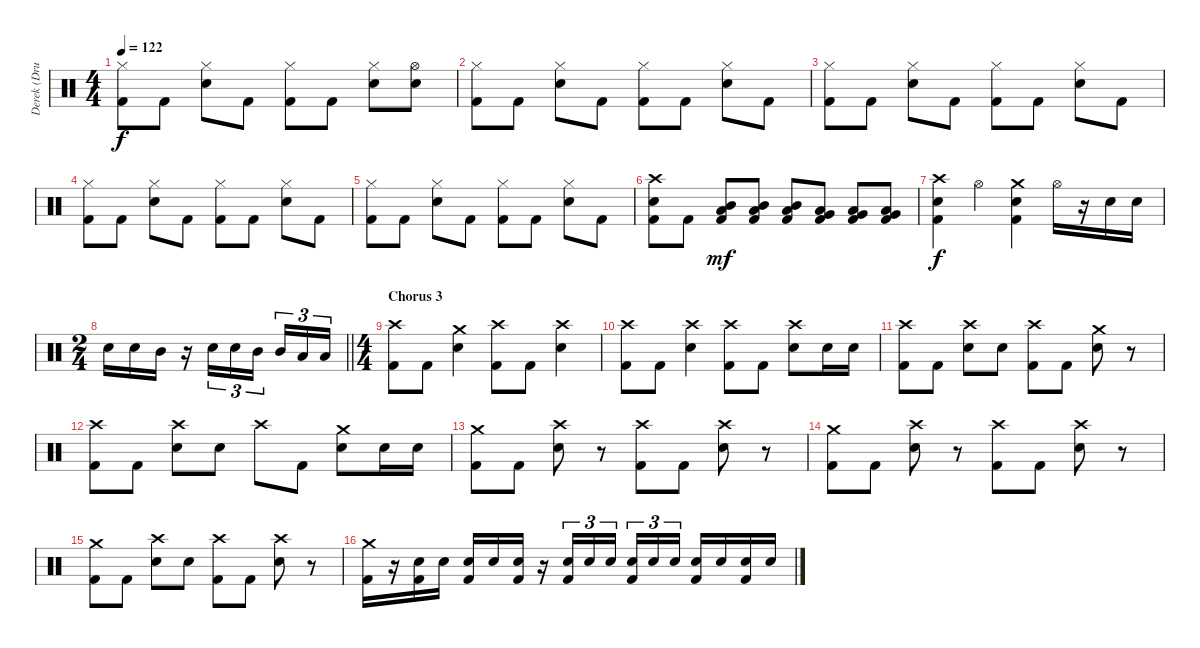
\track ("Derek (Drums)" "Derek (Dru") {instrument percussion}
\staff {score}
\articulation defaults
\ts (4 4)
\tempo 122
\clef neutral
\ks c
("Hi-Hat (closed)" "Kick (hit) 2").8{dy f} "Kick (hit) 2".8 ("Hi-Hat (closed)" "Electric Snare (hit)").8 "Kick (hit) 2".8 ("Hi-Hat (closed)" "Kick (hit) 2").8 "Kick (hit) 2".8 ("Hi-Hat (closed)" "Electric Snare (hit)").8 ("Hi-Hat (open)" "Electric Snare (hit)").8 |
("Hi-Hat (closed)" "Kick (hit) 2").8 "Kick (hit) 2".8 ("Hi-Hat (closed)" "Electric Snare (hit)").8 "Kick (hit) 2".8 ("Hi-Hat (closed)" "Kick (hit) 2").8 "Kick (hit) 2".8 ("Hi-Hat (closed)" "Electric Snare (hit)").8 "Kick (hit) 2".8 |
("Hi-Hat (closed)" "Kick (hit) 2").8 "Kick (hit) 2".8 ("Hi-Hat (closed)" "Electric Snare (hit)").8 "Kick (hit) 2".8 ("Hi-Hat (closed)" "Kick (hit) 2").8 "Kick (hit) 2".8 ("Hi-Hat (closed)" "Electric Snare (hit)").8 "Kick (hit) 2".8 |
("Hi-Hat (closed)" "Kick (hit) 2").8 "Kick (hit) 2".8 ("Hi-Hat (closed)" "Electric Snare (hit)").8 "Kick (hit) 2".8 ("Hi-Hat (closed)" "Kick (hit) 2").8 "Kick (hit) 2".8 ("Hi-Hat (closed)" "Electric Snare (hit)").8 "Kick (hit) 2".8 |
("Hi-Hat (closed)" "Kick (hit) 2").8 "Kick (hit) 2".8 ("Hi-Hat (closed)" "Electric Snare (hit)").8 "Kick (hit) 2".8 ("Hi-Hat (closed)" "Kick (hit) 2").8 "Kick (hit) 2".8 ("Hi-Hat (closed)" "Electric Snare (hit)").8 "Kick (hit) 2".8 |
("Crash high (hit)" "Electric Snare (hit)" "Kick (hit) 2").8 "Kick (hit) 2".8 ("Low Tom (hit)" "Mid Tom (hit)" "Kick (hit) 2").8{dy mf} ("Low Tom (hit)" "Mid Tom (hit)" "Kick (hit) 2").8 ("Low Tom (hit)" "Mid Tom (hit)" "Kick (hit) 2").8 ("Very Low Tom (hit)" "Low Tom (hit)" "Kick (hit) 2").8 ("Very Low Tom (hit)" "Low Tom (hit)" "Kick (hit) 2").8 ("Very Low Tom (hit)" "Low Tom (hit)" "Kick (hit) 2").8 |
("Crash high (hit)" "Electric Snare (hit)" "Kick (hit) 2").4{dy f} "Hi-Hat (open)".4 ("Crash medium (hit)" "Electric Snare (hit)" "Kick (hit) 2").4 "Hi-Hat (open)".16 r.16 "Electric Snare (hit)".16 "Electric Snare (hit)".16 |
\ts (2 4)
\barLineRight lightlight "Electric Snare (hit)".16 "Electric Snare (hit)".16 "Mid Tom (hit)".16
r.16 "Electric Snare (hit)".16{tu (3 2)} "Electric Snare (hit)".16{tu (3 2)} "Mid Tom (hit)".16{tu (3 2) beam splitsecondary} "Mid Tom (hit)".16{tu (3 2)} "Low Tom (hit)".16{tu (3 2)} "Low Tom (hit)".16{tu (3 2)} |
\ts (4 4)
\section ("" "Chorus 3")
("Crash high (hit)" "Kick (hit) 2").8 "Kick (hit) 2".8 ("Crash medium (hit)" "Electric Snare (hit)").4 ("Crash high (hit)" "Kick (hit) 2").8 "Kick (hit) 2".8 ("Crash high (hit)" "Electric Snare (hit)").4 |
("Crash high (hit)" "Kick (hit) 2").8 "Kick (hit) 2".8 ("Crash high (hit)" "Electric Snare (hit)").4 ("Crash high (hit)" "Kick (hit) 2").8 "Kick (hit) 2".8 ("Crash high (hit)" "Electric Snare (hit)").8 "Electric Snare (hit)".16 "Electric Snare (hit)".16 |
("Crash high (hit)" "Kick (hit) 2").8 "Kick (hit) 2".8 ("Crash high (hit)" "Electric Snare (hit)").8 "Electric Snare (hit)".8 ("Crash high (hit)" "Kick (hit) 2").8 "Kick (hit) 2".8 ("Crash medium (hit)" "Electric Snare (hit)").8 r.8 |
("Crash high (hit)" "Kick (hit) 2").8 "Kick (hit) 2".8 ("Crash high (hit)" "Electric Snare (hit)").8 "Electric Snare (hit)".8 "Crash high (hit)".8 "Kick (hit) 2".8 ("Crash medium (hit)" "Electric Snare (hit)").8 "Electric Snare (hit)".16 "Electric Snare (hit)".16 |
("Crash medium (hit)" "Kick (hit) 2").8 "Kick (hit) 2".8 ("Crash high (hit)" "Electric Snare (hit)").8 r.8 ("Crash high (hit)" "Kick (hit) 2").8 "Kick (hit) 2".8 ("Crash high (hit)" "Electric Snare (hit)").8 r.8 |
("Crash medium (hit)" "Kick (hit) 2").8 "Kick (hit) 2".8 ("Crash high (hit)" "Electric Snare (hit)").8 r.8 ("Crash high (hit)" "Kick (hit) 2").8 "Kick (hit) 2".8 ("Crash high (hit)" "Electric Snare (hit)").8 r.8 |
("Crash medium (hit)" "Kick (hit) 2").8 "Kick (hit) 2".8 ("Crash high (hit)" "Electric Snare (hit)").8 "Electric Snare (hit)".8 ("Crash high (hit)" "Kick (hit) 2").8 "Kick (hit) 2".8 ("Crash high (hit)" "Electric Snare (hit)").8 r.8 |
("Crash medium (hit)" "Kick (hit) 2").16 r.16 ("Electric Snare (hit)" "Kick (hit) 2").16 "Electric Snare (hit)".16 ("Electric Snare (hit)" "Kick (hit) 2").16 "Electric Snare (hit)".16 ("Electric Snare (hit)" "Kick (hit) 2").16 r.16 ("Electric Snare (hit)" "Kick (hit) 2").16{tu (3 2)} "Electric Snare (hit)".16{tu (3 2)} "Electric Snare (hit)".16{tu (3 2) beam splitsecondary} ("Electric Snare (hit)" "Kick (hit) 2").16{tu (3 2)} "Electric Snare (hit)".16{tu (3 2)} "Electric Snare (hit)".16{tu (3 2)} ("Electric Snare (hit)" "Kick (hit) 2").16 "Electric Snare (hit)".16 ("Electric Snare (hit)" "Kick (hit) 2").16 "Electric Snare (hit)".16
